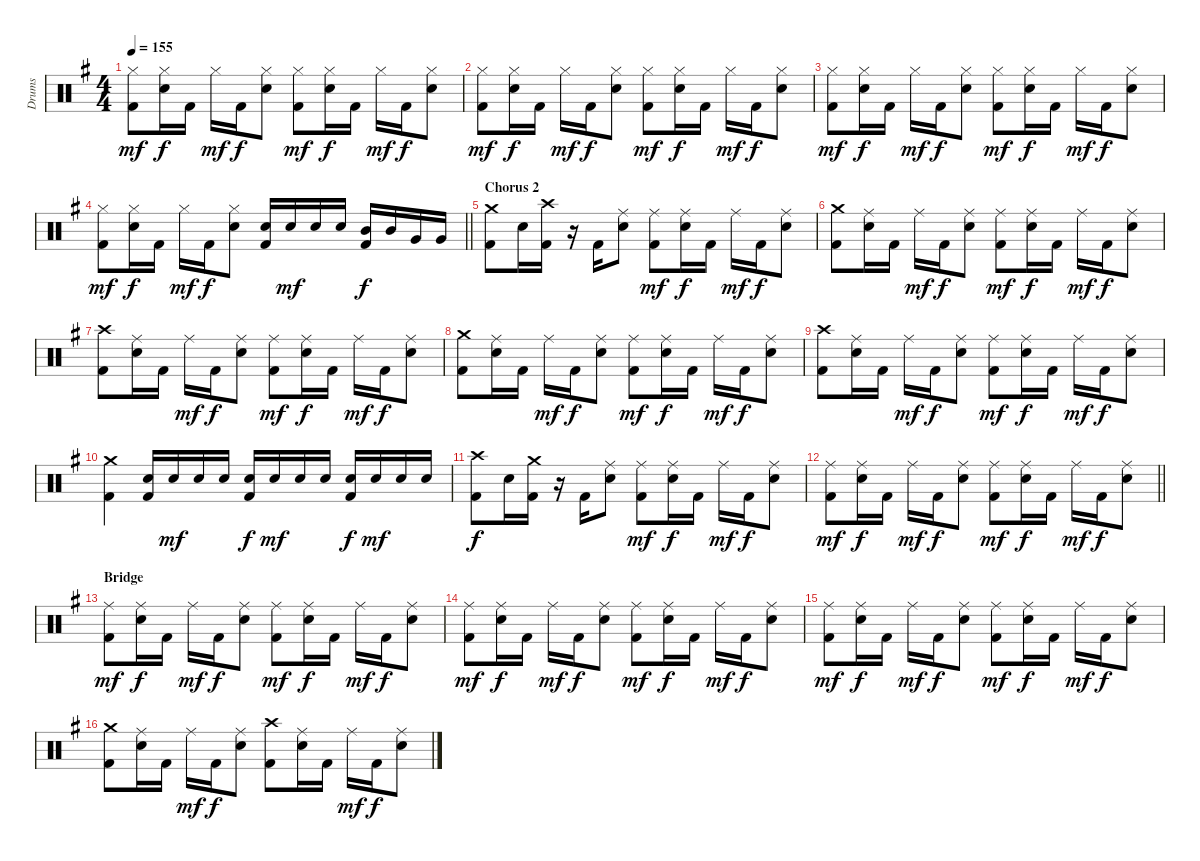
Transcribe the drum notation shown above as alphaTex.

\track ("Drums" "Drums") {instrument percussion}
\staff {score}
\articulation defaults
\ts (4 4)
\tempo 155
\clef neutral
\ks g
("Hi-Hat (closed)" "Kick (hit) 2").8{dy mf} ("Hi-Hat (closed)" "Electric Snare (hit)").16{dy f} "Kick (hit) 2".16 "Hi-Hat (closed)".16{dy mf} "Kick (hit) 2".16{dy f} ("Hi-Hat (closed)" "Electric Snare (hit)").8 ("Hi-Hat (closed)" "Kick (hit) 2").8{dy mf} ("Hi-Hat (closed)" "Electric Snare (hit)").16{dy f} "Kick (hit) 2".16 "Hi-Hat (closed)".16{dy mf} "Kick (hit) 2".16{dy f} ("Hi-Hat (closed)" "Electric Snare (hit)").8 |
("Hi-Hat (closed)" "Kick (hit) 2").8{dy mf} ("Hi-Hat (closed)" "Electric Snare (hit)").16{dy f} "Kick (hit) 2".16 "Hi-Hat (closed)".16{dy mf} "Kick (hit) 2".16{dy f} ("Hi-Hat (closed)" "Electric Snare (hit)").8 ("Hi-Hat (closed)" "Kick (hit) 2").8{dy mf} ("Hi-Hat (closed)" "Electric Snare (hit)").16{dy f} "Kick (hit) 2".16 "Hi-Hat (closed)".16{dy mf} "Kick (hit) 2".16{dy f} ("Hi-Hat (closed)" "Electric Snare (hit)").8 |
("Hi-Hat (closed)" "Kick (hit) 2").8{dy mf} ("Hi-Hat (closed)" "Electric Snare (hit)").16{dy f} "Kick (hit) 2".16 "Hi-Hat (closed)".16{dy mf} "Kick (hit) 2".16{dy f} ("Hi-Hat (closed)" "Electric Snare (hit)").8 ("Hi-Hat (closed)" "Kick (hit) 2").8{dy mf} ("Hi-Hat (closed)" "Electric Snare (hit)").16{dy f} "Kick (hit) 2".16 "Hi-Hat (closed)".16{dy mf} "Kick (hit) 2".16{dy f} ("Hi-Hat (closed)" "Electric Snare (hit)").8 |
\barLineRight lightlight
("Hi-Hat (closed)" "Kick (hit) 2").8{dy mf} ("Hi-Hat (closed)" "Electric Snare (hit)").16{dy f} "Kick (hit) 2".16 "Hi-Hat (closed)".16{dy mf} "Kick (hit) 2".16{dy f} ("Hi-Hat (closed)" "Electric Snare (hit)").8 ("Electric Snare (hit)" "Kick (hit) 2").16 "Electric Snare (hit)".16{dy mf} "Electric Snare (hit)".16 "Electric Snare (hit)".16 ("Mid Tom (hit)" "Kick (hit) 2").16{dy f} "Mid Tom (hit)".16 "Very Low Tom (hit)".16 "Very Low Tom (hit)".16 |
\section ("" "Chorus 2")
("Crash medium (hit)" "Kick (hit) 2").8 "Electric Snare (hit)".16 ("Crash high (hit)" "Kick (hit) 2").16 r.16 "Kick (hit) 2".16 ("Ride (middle)" "Electric Snare (hit)").8 ("Ride (middle)" "Kick (hit) 2").8{dy mf} ("Ride (middle)" "Electric Snare (hit)").16{dy f} "Kick (hit) 2".16 "Ride (middle)".16{dy mf} "Kick (hit) 2".16{dy f} ("Ride (middle)" "Electric Snare (hit)").8 |
("Crash medium (hit)" "Kick (hit) 2").8 ("Ride (middle)" "Electric Snare (hit)").16 "Kick (hit) 2".16 "Ride (middle)".16{dy mf} "Kick (hit) 2".16{dy f} ("Ride (middle)" "Electric Snare (hit)").8 ("Ride (middle)" "Kick (hit) 2").8{dy mf} ("Ride (middle)" "Electric Snare (hit)").16{dy f} "Kick (hit) 2".16 "Ride (middle)".16{dy mf} "Kick (hit) 2".16{dy f} ("Ride (middle)" "Electric Snare (hit)").8 |
("Crash high (hit)" "Kick (hit) 2").8 ("Ride (middle)" "Electric Snare (hit)").16 "Kick (hit) 2".16 "Ride (middle)".16{dy mf} "Kick (hit) 2".16{dy f} ("Ride (middle)" "Electric Snare (hit)").8 ("Ride (middle)" "Kick (hit) 2").8{dy mf} ("Ride (middle)" "Electric Snare (hit)").16{dy f} "Kick (hit) 2".16 "Ride (middle)".16{dy mf} "Kick (hit) 2".16{dy f} ("Ride (middle)" "Electric Snare (hit)").8 |
("Crash medium (hit)" "Kick (hit) 2").8 ("Ride (middle)" "Electric Snare (hit)").16 "Kick (hit) 2".16 "Ride (middle)".16{dy mf} "Kick (hit) 2".16{dy f} ("Ride (middle)" "Electric Snare (hit)").8 ("Ride (middle)" "Kick (hit) 2").8{dy mf} ("Ride (middle)" "Electric Snare (hit)").16{dy f} "Kick (hit) 2".16 "Ride (middle)".16{dy mf} "Kick (hit) 2".16{dy f} ("Ride (middle)" "Electric Snare (hit)").8 |
("Crash high (hit)" "Kick (hit) 2").8 ("Ride (middle)" "Electric Snare (hit)").16 "Kick (hit) 2".16 "Ride (middle)".16{dy mf} "Kick (hit) 2".16{dy f} ("Ride (middle)" "Electric Snare (hit)").8 ("Ride (middle)" "Kick (hit) 2").8{dy mf} ("Ride (middle)" "Electric Snare (hit)").16{dy f} "Kick (hit) 2".16 "Ride (middle)".16{dy mf} "Kick (hit) 2".16{dy f} ("Ride (middle)" "Electric Snare (hit)").8 |
("Crash medium (hit)" "Kick (hit) 2").4 ("Electric Snare (hit)" "Kick (hit) 2").16 "Electric Snare (hit)".16{dy mf} "Electric Snare (hit)".16 "Electric Snare (hit)".16 ("Electric Snare (hit)" "Kick (hit) 2").16{dy f} "Electric Snare (hit)".16{dy mf} "Electric Snare (hit)".16 "Electric Snare (hit)".16 ("Electric Snare (hit)" "Kick (hit) 2").16{dy f} "Electric Snare (hit)".16{dy mf} "Electric Snare (hit)".16 "Electric Snare (hit)".16 |
("Crash high (hit)" "Kick (hit) 2").8{dy f} "Electric Snare (hit)".16 ("Crash medium (hit)" "Kick (hit) 2").16 r.16 "Kick (hit) 2".16 ("Ride (middle)" "Electric Snare (hit)").8 ("Ride (middle)" "Kick (hit) 2").8{dy mf} ("Ride (middle)" "Electric Snare (hit)").16{dy f} "Kick (hit) 2".16 "Ride (middle)".16{dy mf} "Kick (hit) 2".16{dy f} ("Ride (middle)" "Electric Snare (hit)").8 |
\barLineRight lightlight
("Ride (middle)" "Kick (hit) 2").8{dy mf} ("Ride (middle)" "Electric Snare (hit)").16{dy f} "Kick (hit) 2".16 "Ride (middle)".16{dy mf} "Kick (hit) 2".16{dy f} ("Ride (middle)" "Electric Snare (hit)").8 ("Ride (middle)" "Kick (hit) 2").8{dy mf} ("Ride (middle)" "Electric Snare (hit)").16{dy f} "Kick (hit) 2".16 "Ride (middle)".16{dy mf} "Kick (hit) 2".16{dy f} ("Ride (middle)" "Electric Snare (hit)").8 |
\section ("" "Bridge")
("Ride (middle)" "Kick (hit) 2").8{dy mf} ("Ride (middle)" "Electric Snare (hit)").16{dy f} "Kick (hit) 2".16 "Ride (middle)".16{dy mf} "Kick (hit) 2".16{dy f} ("Ride (middle)" "Electric Snare (hit)").8 ("Ride (middle)" "Kick (hit) 2").8{dy mf} ("Ride (middle)" "Electric Snare (hit)").16{dy f} "Kick (hit) 2".16 "Ride (middle)".16{dy mf} "Kick (hit) 2".16{dy f} ("Ride (middle)" "Electric Snare (hit)").8 |
("Ride (middle)" "Kick (hit) 2").8{dy mf} ("Ride (middle)" "Electric Snare (hit)").16{dy f} "Kick (hit) 2".16 "Ride (middle)".16{dy mf} "Kick (hit) 2".16{dy f} ("Ride (middle)" "Electric Snare (hit)").8 ("Ride (middle)" "Kick (hit) 2").8{dy mf} ("Ride (middle)" "Electric Snare (hit)").16{dy f} "Kick (hit) 2".16 "Ride (middle)".16{dy mf} "Kick (hit) 2".16{dy f} ("Ride (middle)" "Electric Snare (hit)").8 |
("Ride (middle)" "Kick (hit) 2").8{dy mf} ("Ride (middle)" "Electric Snare (hit)").16{dy f} "Kick (hit) 2".16 "Ride (middle)".16{dy mf} "Kick (hit) 2".16{dy f} ("Ride (middle)" "Electric Snare (hit)").8 ("Ride (middle)" "Kick (hit) 2").8{dy mf} ("Ride (middle)" "Electric Snare (hit)").16{dy f} "Kick (hit) 2".16 "Ride (middle)".16{dy mf} "Kick (hit) 2".16{dy f} ("Ride (middle)" "Electric Snare (hit)").8 |
("Crash medium (hit)" "Kick (hit) 2").8 ("Ride (middle)" "Electric Snare (hit)").16 "Kick (hit) 2".16 "Ride (middle)".16{dy mf} "Kick (hit) 2".16{dy f} ("Ride (middle)" "Electric Snare (hit)").8 ("Crash high (hit)" "Kick (hit) 2").8 ("Ride (middle)" "Electric Snare (hit)").16 "Kick (hit) 2".16 "Ride (middle)".16{dy mf} "Kick (hit) 2".16{dy f} ("Ride (middle)" "Electric Snare (hit)").8
